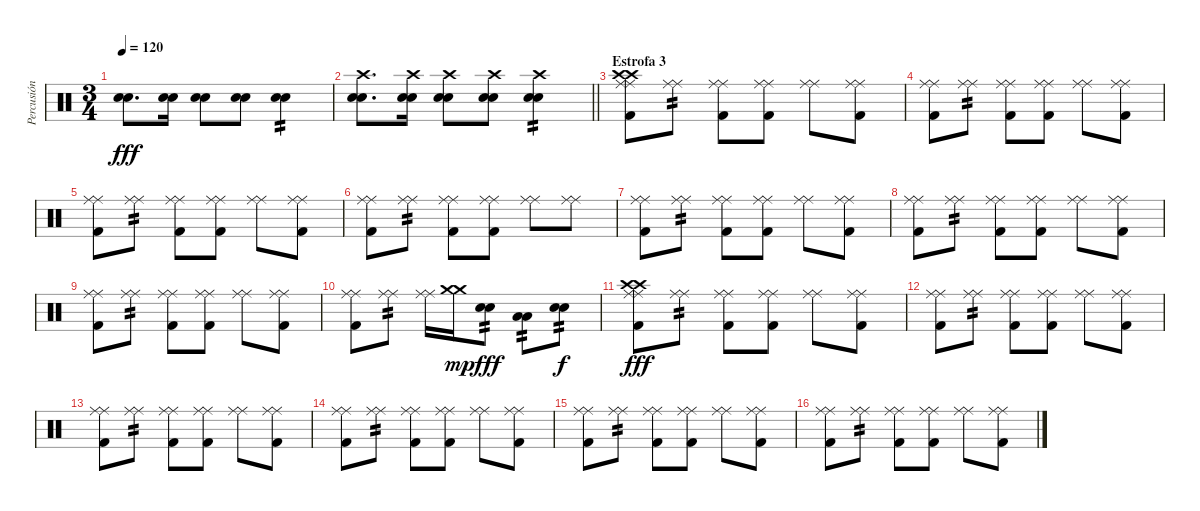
\track ("Percusión" "Percusión") {instrument percussion}
\staff {score}
\articulation defaults
\ts (3 4)
\tempo 120
\clef neutral
\ks c
("Electric Snare (hit)" "Electric Snare (hit)").8{d dy fff} ("Electric Snare (hit)" "Electric Snare (hit)").16 ("Electric Snare (hit)" "Electric Snare (hit)").8 ("Electric Snare (hit)" "Electric Snare (hit)").8 ("Electric Snare (hit)" "Electric Snare (hit)").4{tp 2} |
\barLineRight lightlight
("Crash high (hit)" "Electric Snare (hit)" "Electric Snare (hit)").8{d} ("Crash high (hit)" "Electric Snare (hit)" "Electric Snare (hit)").16 ("Crash high (hit)" "Electric Snare (hit)" "Electric Snare (hit)").8 ("Crash high (hit)" "Electric Snare (hit)" "Electric Snare (hit)").8 ("Crash high (hit)" "Electric Snare (hit)" "Electric Snare (hit)").4{tp 2} |
\section ("" "Estrofa 3")
("Ride (middle)" "Ride (middle)" "Crash high (hit)" "Crash high (hit)" "Kick (hit) 2").8 ("Ride (middle)" "Ride (middle)").8{tp 2} ("Ride (middle)" "Ride (middle)" "Kick (hit) 2").8 ("Ride (middle)" "Ride (middle)" "Kick (hit) 2").8 ("Ride (middle)" "Ride (middle)").8 ("Ride (middle)" "Ride (middle)" "Kick (hit) 2").8 |
("Ride (middle)" "Ride (middle)" "Kick (hit) 2").8 ("Ride (middle)" "Ride (middle)").8{tp 2} ("Ride (middle)" "Ride (middle)" "Kick (hit) 2").8 ("Ride (middle)" "Ride (middle)" "Kick (hit) 2").8 ("Ride (middle)" "Ride (middle)").8 ("Ride (middle)" "Ride (middle)" "Kick (hit) 2").8 |
("Ride (middle)" "Ride (middle)" "Kick (hit) 2").8 ("Ride (middle)" "Ride (middle)").8{tp 2} ("Ride (middle)" "Ride (middle)" "Kick (hit) 2").8 ("Ride (middle)" "Ride (middle)" "Kick (hit) 2").8 ("Ride (middle)" "Ride (middle)").8 ("Ride (middle)" "Ride (middle)" "Kick (hit) 2").8 |
("Ride (middle)" "Ride (middle)" "Kick (hit) 2").8 ("Ride (middle)" "Ride (middle)").8{tp 2} ("Ride (middle)" "Ride (middle)" "Kick (hit) 2").8 ("Ride (middle)" "Ride (middle)" "Kick (hit) 2").8 ("Ride (middle)" "Ride (middle)").8 ("Ride (middle)" "Ride (middle)").8 |
("Ride (middle)" "Ride (middle)" "Kick (hit) 2").8 ("Ride (middle)" "Ride (middle)").8{tp 2} ("Ride (middle)" "Ride (middle)" "Kick (hit) 2").8 ("Ride (middle)" "Ride (middle)" "Kick (hit) 2").8 ("Ride (middle)" "Ride (middle)").8 ("Ride (middle)" "Ride (middle)" "Kick (hit) 2").8 |
("Ride (middle)" "Ride (middle)" "Kick (hit) 2").8 ("Ride (middle)" "Ride (middle)").8{tp 2} ("Ride (middle)" "Ride (middle)" "Kick (hit) 2").8 ("Ride (middle)" "Ride (middle)" "Kick (hit) 2").8 ("Ride (middle)" "Ride (middle)").8 ("Ride (middle)" "Ride (middle)" "Kick (hit) 2").8 |
("Ride (middle)" "Ride (middle)" "Kick (hit) 2").8 ("Ride (middle)" "Ride (middle)").8{tp 2} ("Ride (middle)" "Ride (middle)" "Kick (hit) 2").8 ("Ride (middle)" "Ride (middle)" "Kick (hit) 2").8 ("Ride (middle)" "Ride (middle)").8 ("Ride (middle)" "Ride (middle)" "Kick (hit) 2").8 |
("Ride (middle)" "Ride (middle)" "Kick (hit) 2").8 ("Ride (middle)" "Ride (middle)").8{tp 2} ("Ride (middle)" "Ride (middle)").16 ("Crash medium (hit)" "Crash medium (hit)").16{dy mp} ("Electric Snare (hit)" "Electric Snare (hit)").8{tp 2 dy fff} ("Low Tom (hit)" "Low Tom (hit)").8{tp 2} ("Electric Snare (hit)" "Electric Snare (hit)").8{tp 2 dy f} |
("Ride (middle)" "Ride (middle)" "Crash high (hit)" "Crash high (hit)" "Kick (hit) 2").8{dy fff} ("Ride (middle)" "Ride (middle)").8{tp 2} ("Ride (middle)" "Ride (middle)" "Kick (hit) 2").8 ("Ride (middle)" "Ride (middle)" "Kick (hit) 2").8 ("Ride (middle)" "Ride (middle)").8 ("Ride (middle)" "Ride (middle)" "Kick (hit) 2").8 |
("Ride (middle)" "Ride (middle)" "Kick (hit) 2").8 ("Ride (middle)" "Ride (middle)").8{tp 2} ("Ride (middle)" "Ride (middle)" "Kick (hit) 2").8 ("Ride (middle)" "Ride (middle)" "Kick (hit) 2").8 ("Ride (middle)" "Ride (middle)").8 ("Ride (middle)" "Ride (middle)" "Kick (hit) 2").8 |
("Ride (middle)" "Ride (middle)" "Kick (hit) 2").8 ("Ride (middle)" "Ride (middle)").8{tp 2} ("Ride (middle)" "Ride (middle)" "Kick (hit) 2").8 ("Ride (middle)" "Ride (middle)" "Kick (hit) 2").8 ("Ride (middle)" "Ride (middle)").8 ("Ride (middle)" "Ride (middle)" "Kick (hit) 2").8 |
("Ride (middle)" "Ride (middle)" "Kick (hit) 2").8 ("Ride (middle)" "Ride (middle)").8{tp 2} ("Ride (middle)" "Ride (middle)" "Kick (hit) 2").8 ("Ride (middle)" "Ride (middle)" "Kick (hit) 2").8 ("Ride (middle)" "Ride (middle)").8 ("Ride (middle)" "Ride (middle)" "Kick (hit) 2").8 |
("Ride (middle)" "Ride (middle)" "Kick (hit) 2").8 ("Ride (middle)" "Ride (middle)").8{tp 2} ("Ride (middle)" "Ride (middle)" "Kick (hit) 2").8 ("Ride (middle)" "Ride (middle)" "Kick (hit) 2").8 ("Ride (middle)" "Ride (middle)").8 ("Ride (middle)" "Ride (middle)" "Kick (hit) 2").8 |
("Ride (middle)" "Ride (middle)" "Kick (hit) 2").8 ("Ride (middle)" "Ride (middle)").8{tp 2} ("Ride (middle)" "Ride (middle)" "Kick (hit) 2").8 ("Ride (middle)" "Ride (middle)" "Kick (hit) 2").8 ("Ride (middle)" "Ride (middle)").8 ("Ride (middle)" "Ride (middle)" "Kick (hit) 2").8
